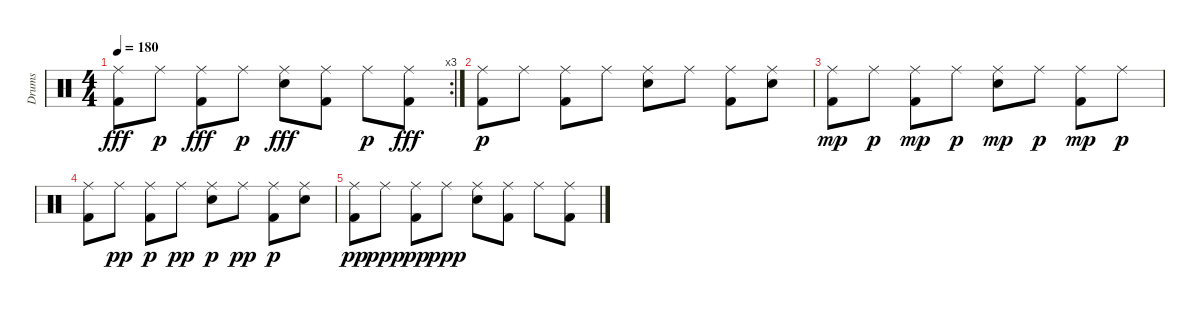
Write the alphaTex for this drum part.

\track ("Drums" "Drums") {instrument percussion}
\staff {score}
\articulation defaults
\rc 3
\ts (4 4)
\tempo 180
\clef neutral
\ks c
("Ride (middle)" "Kick (hit) 2").8{dy fff} "Ride (middle)".8{dy p} ("Ride (middle)" "Kick (hit) 2").8{dy fff} "Ride (middle)".8{dy p} ("Ride (middle)" "Electric Snare (hit)").8{dy fff} ("Ride (middle)" "Kick (hit) 2").8 "Ride (middle)".8{dy p} ("Ride (middle)" "Kick (hit) 2").8{dy fff} |
("Ride (middle)" "Kick (hit) 2").8{dy p} "Ride (middle)".8 ("Ride (middle)" "Kick (hit) 2").8 "Ride (middle)".8 ("Ride (middle)" "Electric Snare (hit)").8 "Ride (middle)".8 ("Ride (middle)" "Kick (hit) 2").8 ("Ride (middle)" "Electric Snare (hit)").8 |
("Ride (middle)" "Kick (hit) 2").8{dy mp} "Ride (middle)".8{dy p} ("Ride (middle)" "Kick (hit) 2").8{dy mp} "Ride (middle)".8{dy p} ("Ride (middle)" "Electric Snare (hit)").8{dy mp} "Ride (middle)".8{dy p} ("Ride (middle)" "Kick (hit) 2").8{dy mp} "Ride (middle)".8{dy p} |
("Ride (middle)" "Kick (hit) 2").8 "Ride (middle)".8{dy pp} ("Ride (middle)" "Kick (hit) 2").8{dy p} "Ride (middle)".8{dy pp} ("Ride (middle)" "Electric Snare (hit)").8{dy p} "Ride (middle)".8{dy pp} ("Ride (middle)" "Kick (hit) 2").8{dy p} ("Ride (middle)" "Electric Snare (hit)").8 |
("Ride (middle)" "Kick (hit) 2").8{dy pp} "Ride (middle)".8{dy ppp} ("Ride (middle)" "Kick (hit) 2").8{dy pp} "Ride (middle)".8{dy ppp} ("Ride (middle)" "Electric Snare (hit)").8 ("Ride (middle)" "Kick (hit) 2").8 "Ride (middle)".8 ("Ride (middle)" "Kick (hit) 2").8
